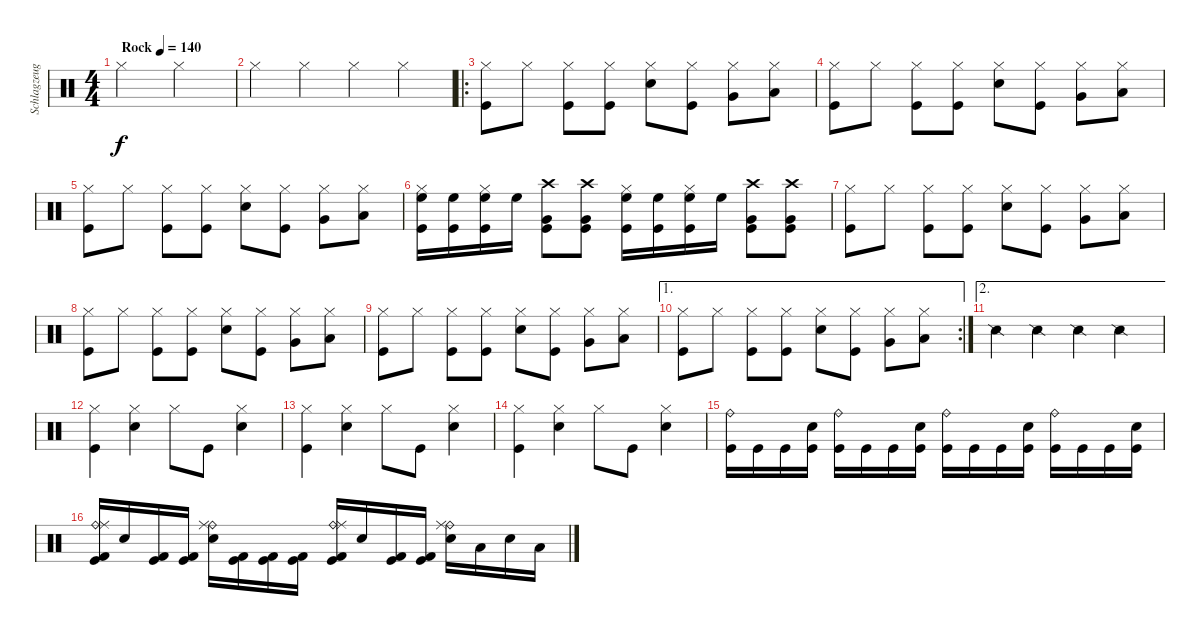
\track ("Schlagzeug" "Schlagzeug") {instrument percussion}
\staff {score}
\articulation defaults
\ts (4 4)
\tempo (140 "Rock")
\clef neutral
\ks c "Hi-Hat (closed)".2{dy f} "Hi-Hat (closed)".2
|
"Hi-Hat (closed)".4 "Hi-Hat (closed)".4 "Hi-Hat (closed)".4 "Hi-Hat (closed)".4 |
\ro
("Hi-Hat (closed)" "Kick (hit)").8 "Hi-Hat (closed)".8 ("Hi-Hat (closed)" "Kick (hit)").8 ("Hi-Hat (closed)" "Kick (hit)").8 ("Hi-Hat (closed)" "Snare (hit) 2").8 ("Hi-Hat (closed)" "Kick (hit)").8 ("Hi-Hat (closed)" "Very Low Tom (hit)").8 ("Hi-Hat (closed)" "Low Floor Tom (hit)").8 |
("Hi-Hat (closed)" "Kick (hit)").8 "Hi-Hat (closed)".8 ("Hi-Hat (closed)" "Kick (hit)").8 ("Hi-Hat (closed)" "Kick (hit)").8 ("Hi-Hat (closed)" "Snare (hit) 2").8 ("Hi-Hat (closed)" "Kick (hit)").8 ("Hi-Hat (closed)" "Very Low Tom (hit)").8 ("Hi-Hat (closed)" "Low Floor Tom (hit)").8 |
("Hi-Hat (closed)" "Kick (hit)").8 "Hi-Hat (closed)".8 ("Hi-Hat (closed)" "Kick (hit)").8 ("Hi-Hat (closed)" "Kick (hit)").8 ("Hi-Hat (closed)" "Snare (hit) 2").8 ("Hi-Hat (closed)" "Kick (hit)").8 ("Hi-Hat (closed)" "Very Low Tom (hit)").8 ("Hi-Hat (closed)" "Low Floor Tom (hit)").8 |
("Hi-Hat (closed)" "High Floor Tom (hit)" "Kick (hit)").16 ("High Floor Tom (hit)" "Kick (hit)").16 ("Hi-Hat (closed)" "High Floor Tom (hit)" "Kick (hit)").16 "High Floor Tom (hit)".16 ("Crash high (hit)" "Very Low Tom (hit)" "Kick (hit)").8 ("Crash high (hit)" "Very Low Tom (hit)" "Kick (hit)").8 ("Hi-Hat (closed)" "High Floor Tom (hit)" "Kick (hit)").16 ("High Floor Tom (hit)" "Kick (hit)").16 ("Hi-Hat (closed)" "High Floor Tom (hit)" "Kick (hit)").16 "High Floor Tom (hit)".16 ("Crash high (hit)" "Very Low Tom (hit)" "Kick (hit)").8 ("Crash high (hit)" "Very Low Tom (hit)" "Kick (hit)").8 |
("Hi-Hat (closed)" "Kick (hit)").8 "Hi-Hat (closed)".8 ("Hi-Hat (closed)" "Kick (hit)").8 ("Hi-Hat (closed)" "Kick (hit)").8 ("Hi-Hat (closed)" "Snare (hit) 2").8 ("Hi-Hat (closed)" "Kick (hit)").8 ("Hi-Hat (closed)" "Very Low Tom (hit)").8 ("Hi-Hat (closed)" "Low Floor Tom (hit)").8 |
("Hi-Hat (closed)" "Kick (hit)").8 "Hi-Hat (closed)".8 ("Hi-Hat (closed)" "Kick (hit)").8 ("Hi-Hat (closed)" "Kick (hit)").8 ("Hi-Hat (closed)" "Snare (hit) 2").8 ("Hi-Hat (closed)" "Kick (hit)").8 ("Hi-Hat (closed)" "Very Low Tom (hit)").8 ("Hi-Hat (closed)" "Low Floor Tom (hit)").8 |
("Hi-Hat (closed)" "Kick (hit)").8 "Hi-Hat (closed)".8 ("Hi-Hat (closed)" "Kick (hit)").8 ("Hi-Hat (closed)" "Kick (hit)").8 ("Hi-Hat (closed)" "Snare (hit) 2").8 ("Hi-Hat (closed)" "Kick (hit)").8 ("Hi-Hat (closed)" "Very Low Tom (hit)").8 ("Hi-Hat (closed)" "Low Floor Tom (hit)").8 |
\ae 1
\rc 2
("Hi-Hat (closed)" "Kick (hit)").8 "Hi-Hat (closed)".8 ("Hi-Hat (closed)" "Kick (hit)").8 ("Hi-Hat (closed)" "Kick (hit)").8 ("Hi-Hat (closed)" "Snare (hit) 2").8 ("Hi-Hat (closed)" "Kick (hit)").8 ("Hi-Hat (closed)" "Very Low Tom (hit)").8 ("Hi-Hat (closed)" "Low Floor Tom (hit)").8 |
\ae 2 "Snare (side stick) 2".4 "Snare (side stick) 2".4 "Snare (side stick) 2".4 "Snare (side stick) 2".4
|
("Hi-Hat (closed)" "Kick (hit)").4 ("Hi-Hat (closed)" "Snare (hit) 2").4 "Hi-Hat (closed)".8 "Kick (hit)".8 ("Hi-Hat (closed)" "Snare (hit) 2").4 |
("Hi-Hat (closed)" "Kick (hit)").4 ("Hi-Hat (closed)" "Snare (hit) 2").4 "Hi-Hat (closed)".8 "Kick (hit)".8 ("Hi-Hat (closed)" "Snare (hit) 2").4 |
("Hi-Hat (closed)" "Kick (hit)").4 ("Hi-Hat (closed)" "Snare (hit) 2").4 "Hi-Hat (closed)".8 "Kick (hit)".8 ("Hi-Hat (closed)" "Snare (hit) 2").4 |
("Ride (bell)" "Kick (hit)").16 "Kick (hit)".16 "Kick (hit)".16 ("Snare (hit) 2" "Kick (hit)").16 ("Ride (bell)" "Kick (hit)").16 "Kick (hit)".16 "Kick (hit)".16 ("Snare (hit) 2" "Kick (hit)").16 ("Ride (bell)" "Kick (hit)").16 "Kick (hit)".16 "Kick (hit)".16 ("Snare (hit) 2" "Kick (hit)").16 ("Ride (bell)" "Kick (hit)").16 "Kick (hit)".16 "Kick (hit)".16 ("Snare (hit) 2" "Kick (hit)").16 |
("Ride (bell)" "Ride (middle)" "Kick (hit) 2" "Kick (hit)").16 "Snare (hit) 2".16 ("Kick (hit) 2" "Kick (hit)").16 ("Kick (hit) 2" "Kick (hit)").16 ("Ride (bell)" "Ride (middle)" "Snare (hit) 2").16 ("Kick (hit) 2" "Kick (hit)").16 ("Kick (hit) 2" "Kick (hit)").16 ("Kick (hit) 2" "Kick (hit)").16 ("Ride (bell)" "Ride (middle)" "Kick (hit) 2" "Kick (hit)").16 "Snare (hit) 2".16 ("Kick (hit) 2" "Kick (hit)").16 ("Kick (hit) 2" "Kick (hit)").16 ("Ride (bell)" "Ride (middle)" "Snare (hit) 2").16 "Low Tom (hit)".16 "Snare (hit) 2".16 "Low Tom (hit)".16
